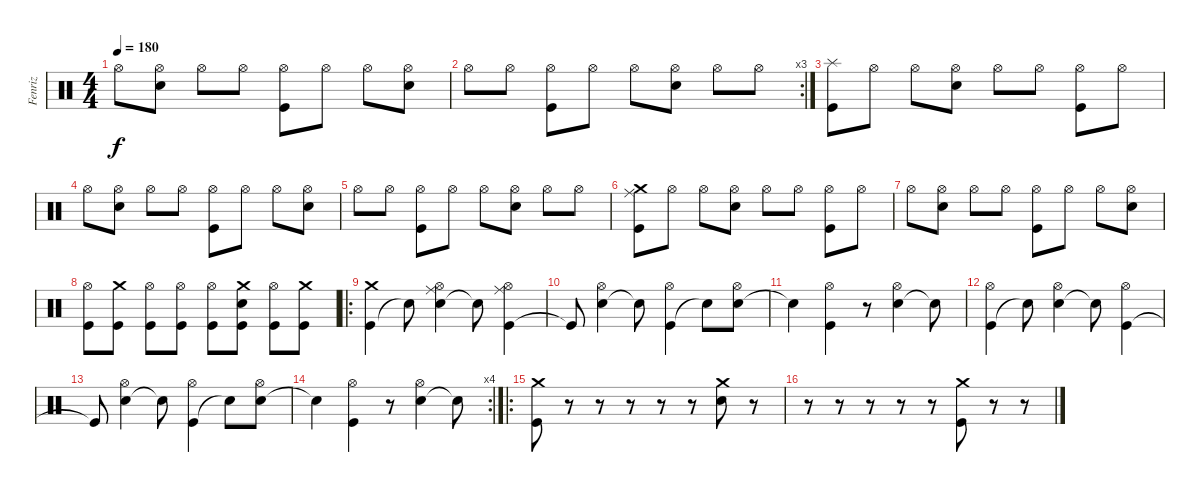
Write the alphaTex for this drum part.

\track ("Fenriz" "Fenriz") {instrument percussion}
\staff {score}
\articulation defaults
\ts (4 4)
\tempo 180
\clef neutral
\ks c "Hi-Hat (open)".8{dy f}
("Hi-Hat (open)" "Snare (hit) 2").8 "Hi-Hat (open)".8 "Hi-Hat (open)".8 ("Hi-Hat (open)" "Kick (hit)").8 "Hi-Hat (open)".8 "Hi-Hat (open)".8 ("Hi-Hat (open)" "Snare (hit) 2").8 |
\rc 3 "Hi-Hat (open)".8 "Hi-Hat (open)".8
("Hi-Hat (open)" "Kick (hit)").8 "Hi-Hat (open)".8 "Hi-Hat (open)".8 ("Hi-Hat (open)" "Snare (hit) 2").8 "Hi-Hat (open)".8 "Hi-Hat (open)".8 |
("Splash (hit)" "Kick (hit)").8 "Hi-Hat (open)".8 "Hi-Hat (open)".8 ("Hi-Hat (open)" "Snare (hit) 2").8 "Hi-Hat (open)".8 "Hi-Hat (open)".8 ("Hi-Hat (open)" "Kick (hit)").8 "Hi-Hat (open)".8 |
"Hi-Hat (open)".8 ("Hi-Hat (open)" "Snare (hit) 2").8 "Hi-Hat (open)".8 "Hi-Hat (open)".8 ("Hi-Hat (open)" "Kick (hit)").8 "Hi-Hat (open)".8 "Hi-Hat (open)".8 ("Hi-Hat (open)" "Snare (hit) 2").8 |
"Hi-Hat (open)".8 "Hi-Hat (open)".8 ("Hi-Hat (open)" "Kick (hit)").8 "Hi-Hat (open)".8 "Hi-Hat (open)".8 ("Hi-Hat (open)" "Snare (hit) 2").8 "Hi-Hat (open)".8 "Hi-Hat (open)".8 |
("Crash medium (hit)" "Ride (middle)" "Kick (hit)").8 "Hi-Hat (open)".8 "Hi-Hat (open)".8 ("Hi-Hat (open)" "Snare (hit) 2").8 "Hi-Hat (open)".8 "Hi-Hat (open)".8 ("Hi-Hat (open)" "Kick (hit)").8 "Hi-Hat (open)".8 |
"Hi-Hat (open)".8 ("Hi-Hat (open)" "Snare (hit) 2").8 "Hi-Hat (open)".8 "Hi-Hat (open)".8 ("Hi-Hat (open)" "Kick (hit)").8 "Hi-Hat (open)".8 "Hi-Hat (open)".8 ("Hi-Hat (open)" "Snare (hit) 2").8 |
("Hi-Hat (open)" "Kick (hit)").8 ("Crash medium (hit)" "Kick (hit)").8 ("Hi-Hat (open)" "Kick (hit)").8 ("Hi-Hat (open)" "Kick (hit)").8 ("Hi-Hat (open)" "Kick (hit)").8 ("Crash medium (hit)" "Snare (hit) 2" "Kick (hit)").8 ("Hi-Hat (open)" "Kick (hit)").8 ("Crash medium (hit)" "Kick (hit)").8 |
\ro
("Kick (hit)" "Crash medium (hit)").4 "Snare (hit) 2"{t}.8 ("Snare (hit) 2" "Hi-Hat (open)" "Ride (middle)").4 "Snare (hit)"{t}.8 ("Kick (hit)" "Hi-Hat (open)" "Ride (middle)").4 |
"Kick (hit)"{t}.8 ("Snare (hit) 2" "Hi-Hat (open)").4 "Snare (hit) 2"{t}.8 ("Kick (hit)" "Hi-Hat (open)").4 "Snare (hit)"{t}.8 ("Snare (hit) 2" "Hi-Hat (open)").8 |
"Snare (hit)"{t}.4 ("Kick (hit)" "Hi-Hat (open)").4 r.8 ("Snare (hit) 2" "Hi-Hat (open)").4 "Snare (hit)"{t}.8 |
("Kick (hit)" "Hi-Hat (open)").4 "Snare (hit) 2"{t}.8 ("Snare (hit) 2" "Hi-Hat (open)").4 "Snare (hit)"{t}.8 ("Kick (hit)" "Hi-Hat (open)").4 |
"Kick (hit)"{t}.8 ("Snare (hit) 2" "Hi-Hat (open)").4 "Snare (hit) 2"{t}.8 ("Kick (hit)" "Hi-Hat (open)").4 "Snare (hit)"{t}.8 ("Snare (hit) 2" "Hi-Hat (open)").8 |
\rc 4 "Snare (hit)"{t}.4
("Kick (hit)" "Hi-Hat (open)").4 r.8 ("Snare (hit) 2" "Hi-Hat (open)").4 "Snare (hit)"{t}.8 |
\ro
("Kick (hit)" "Crash medium (hit)").8 r.8 r.8 r.8 r.8 r.8 ("Snare (hit) 2" "Crash medium (hit)").8 r.8 |
r.8 r.8 r.8 r.8 r.8 ("Kick (hit)" "Crash medium (hit)").8 r.8 r.8
